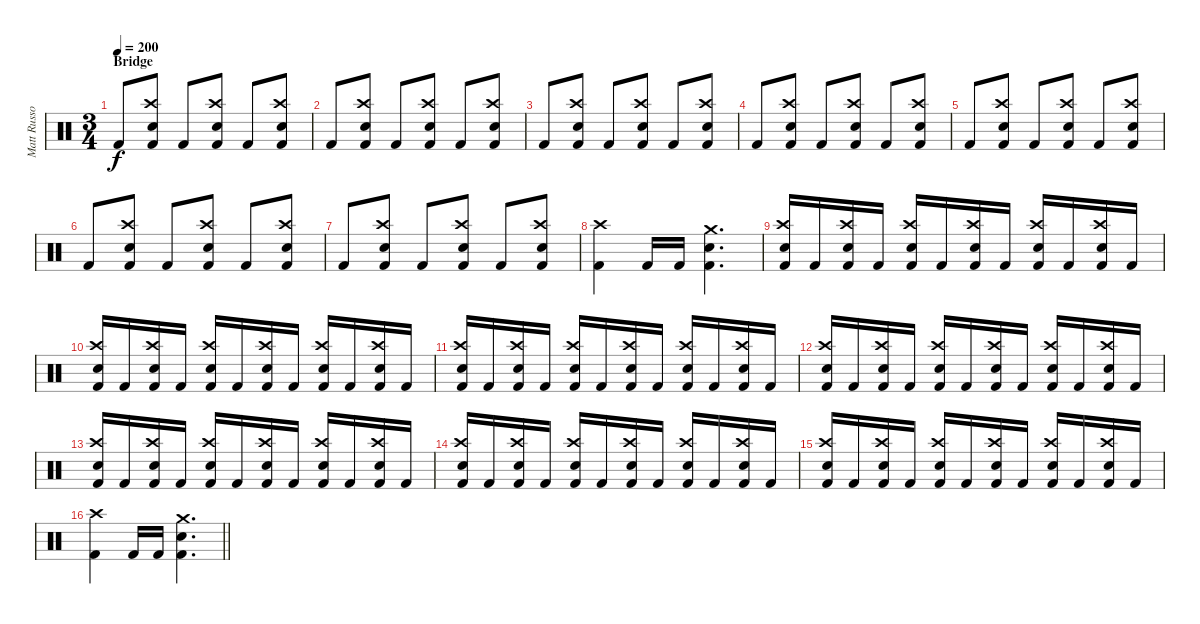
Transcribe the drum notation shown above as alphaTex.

\track ("Matt Russo" "Matt Russo") {instrument percussion}
\staff {score}
\articulation defaults
\ts (3 4)
\section ("" "Bridge")
\tempo 200
\clef neutral
\ks c "Kick (hit) 2".8{dy f}
("Crash high (hit)" "Electric Snare (hit)" "Kick (hit) 2").8 "Kick (hit) 2".8 ("Crash high (hit)" "Electric Snare (hit)" "Kick (hit) 2").8 "Kick (hit) 2".8 ("Crash high (hit)" "Electric Snare (hit)" "Kick (hit) 2").8 |
"Kick (hit) 2".8 ("Crash high (hit)" "Electric Snare (hit)" "Kick (hit) 2").8 "Kick (hit) 2".8 ("Crash high (hit)" "Electric Snare (hit)" "Kick (hit) 2").8 "Kick (hit) 2".8 ("Crash high (hit)" "Electric Snare (hit)" "Kick (hit) 2").8 |
"Kick (hit) 2".8 ("Crash high (hit)" "Electric Snare (hit)" "Kick (hit) 2").8 "Kick (hit) 2".8 ("Crash high (hit)" "Electric Snare (hit)" "Kick (hit) 2").8 "Kick (hit) 2".8 ("Crash high (hit)" "Electric Snare (hit)" "Kick (hit) 2").8 |
"Kick (hit) 2".8 ("Crash high (hit)" "Electric Snare (hit)" "Kick (hit) 2").8 "Kick (hit) 2".8 ("Crash high (hit)" "Electric Snare (hit)" "Kick (hit) 2").8 "Kick (hit) 2".8 ("Crash high (hit)" "Electric Snare (hit)" "Kick (hit) 2").8 |
"Kick (hit) 2".8 ("Crash high (hit)" "Electric Snare (hit)" "Kick (hit) 2").8 "Kick (hit) 2".8 ("Crash high (hit)" "Electric Snare (hit)" "Kick (hit) 2").8 "Kick (hit) 2".8 ("Crash high (hit)" "Electric Snare (hit)" "Kick (hit) 2").8 |
"Kick (hit) 2".8 ("Crash high (hit)" "Electric Snare (hit)" "Kick (hit) 2").8 "Kick (hit) 2".8 ("Crash high (hit)" "Electric Snare (hit)" "Kick (hit) 2").8 "Kick (hit) 2".8 ("Crash high (hit)" "Electric Snare (hit)" "Kick (hit) 2").8 |
"Kick (hit) 2".8 ("Crash high (hit)" "Electric Snare (hit)" "Kick (hit) 2").8 "Kick (hit) 2".8 ("Crash high (hit)" "Electric Snare (hit)" "Kick (hit) 2").8 "Kick (hit) 2".8 ("Crash high (hit)" "Electric Snare (hit)" "Kick (hit) 2").8 |
("Crash high (hit)" "Kick (hit) 2").4 "Kick (hit) 2".16 "Kick (hit) 2".16 ("Crash medium (hit)" "Electric Snare (hit)" "Kick (hit) 2").4{d} |
("Crash high (hit)" "Electric Snare (hit)" "Kick (hit) 2").16 "Kick (hit) 2".16 ("Crash high (hit)" "Electric Snare (hit)" "Kick (hit) 2").16 "Kick (hit) 2".16 ("Crash high (hit)" "Electric Snare (hit)" "Kick (hit) 2").16 "Kick (hit) 2".16 ("Crash high (hit)" "Electric Snare (hit)" "Kick (hit) 2").16 "Kick (hit) 2".16 ("Crash high (hit)" "Electric Snare (hit)" "Kick (hit) 2").16 "Kick (hit) 2".16 ("Crash high (hit)" "Electric Snare (hit)" "Kick (hit) 2").16 "Kick (hit) 2".16 |
("Crash high (hit)" "Electric Snare (hit)" "Kick (hit) 2").16 "Kick (hit) 2".16 ("Crash high (hit)" "Electric Snare (hit)" "Kick (hit) 2").16 "Kick (hit) 2".16 ("Crash high (hit)" "Electric Snare (hit)" "Kick (hit) 2").16 "Kick (hit) 2".16 ("Crash high (hit)" "Electric Snare (hit)" "Kick (hit) 2").16 "Kick (hit) 2".16 ("Crash high (hit)" "Electric Snare (hit)" "Kick (hit) 2").16 "Kick (hit) 2".16 ("Crash high (hit)" "Electric Snare (hit)" "Kick (hit) 2").16 "Kick (hit) 2".16 |
("Crash high (hit)" "Electric Snare (hit)" "Kick (hit) 2").16 "Kick (hit) 2".16 ("Crash high (hit)" "Electric Snare (hit)" "Kick (hit) 2").16 "Kick (hit) 2".16 ("Crash high (hit)" "Electric Snare (hit)" "Kick (hit) 2").16 "Kick (hit) 2".16 ("Crash high (hit)" "Electric Snare (hit)" "Kick (hit) 2").16 "Kick (hit) 2".16 ("Crash high (hit)" "Electric Snare (hit)" "Kick (hit) 2").16 "Kick (hit) 2".16 ("Crash high (hit)" "Electric Snare (hit)" "Kick (hit) 2").16 "Kick (hit) 2".16 |
("Crash high (hit)" "Electric Snare (hit)" "Kick (hit) 2").16 "Kick (hit) 2".16 ("Crash high (hit)" "Electric Snare (hit)" "Kick (hit) 2").16 "Kick (hit) 2".16 ("Crash high (hit)" "Electric Snare (hit)" "Kick (hit) 2").16 "Kick (hit) 2".16 ("Crash high (hit)" "Electric Snare (hit)" "Kick (hit) 2").16 "Kick (hit) 2".16 ("Crash high (hit)" "Electric Snare (hit)" "Kick (hit) 2").16 "Kick (hit) 2".16 ("Crash high (hit)" "Electric Snare (hit)" "Kick (hit) 2").16 "Kick (hit) 2".16 |
("Crash high (hit)" "Electric Snare (hit)" "Kick (hit) 2").16 "Kick (hit) 2".16 ("Crash high (hit)" "Electric Snare (hit)" "Kick (hit) 2").16 "Kick (hit) 2".16 ("Crash high (hit)" "Electric Snare (hit)" "Kick (hit) 2").16 "Kick (hit) 2".16 ("Crash high (hit)" "Electric Snare (hit)" "Kick (hit) 2").16 "Kick (hit) 2".16 ("Crash high (hit)" "Electric Snare (hit)" "Kick (hit) 2").16 "Kick (hit) 2".16 ("Crash high (hit)" "Electric Snare (hit)" "Kick (hit) 2").16 "Kick (hit) 2".16 |
("Crash high (hit)" "Electric Snare (hit)" "Kick (hit) 2").16 "Kick (hit) 2".16 ("Crash high (hit)" "Electric Snare (hit)" "Kick (hit) 2").16 "Kick (hit) 2".16 ("Crash high (hit)" "Electric Snare (hit)" "Kick (hit) 2").16 "Kick (hit) 2".16 ("Crash high (hit)" "Electric Snare (hit)" "Kick (hit) 2").16 "Kick (hit) 2".16 ("Crash high (hit)" "Electric Snare (hit)" "Kick (hit) 2").16 "Kick (hit) 2".16 ("Crash high (hit)" "Electric Snare (hit)" "Kick (hit) 2").16 "Kick (hit) 2".16 |
("Crash high (hit)" "Electric Snare (hit)" "Kick (hit) 2").16 "Kick (hit) 2".16 ("Crash high (hit)" "Electric Snare (hit)" "Kick (hit) 2").16 "Kick (hit) 2".16 ("Crash high (hit)" "Electric Snare (hit)" "Kick (hit) 2").16 "Kick (hit) 2".16 ("Crash high (hit)" "Electric Snare (hit)" "Kick (hit) 2").16 "Kick (hit) 2".16 ("Crash high (hit)" "Electric Snare (hit)" "Kick (hit) 2").16 "Kick (hit) 2".16 ("Crash high (hit)" "Electric Snare (hit)" "Kick (hit) 2").16 "Kick (hit) 2".16 |
\barLineRight lightlight
("Crash high (hit)" "Kick (hit) 2").4 "Kick (hit) 2".16 "Kick (hit) 2".16 ("Crash medium (hit)" "Electric Snare (hit)" "Kick (hit) 2").4{d}
